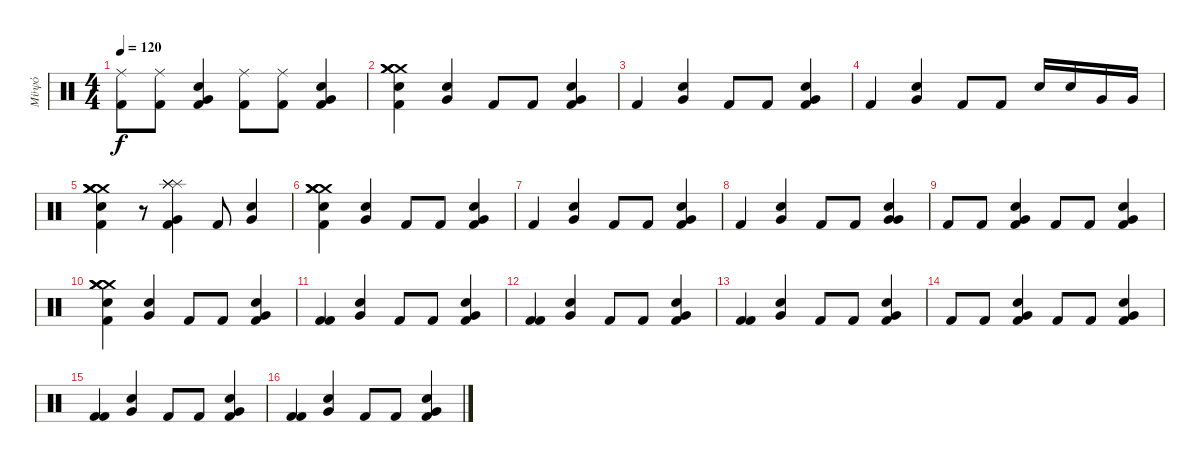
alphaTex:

\track ("Μϋψό" "Μϋψό") {instrument percussion}
\staff {score}
\articulation defaults
\ts (4 4)
\tempo 120
\clef neutral
\ks c
("Kick (hit) 2" "Ride (middle)").8{dy f} ("Kick (hit) 2" "Ride (middle)").8 ("Electric Snare (hit)" "Kick (hit) 2" "Very Low Tom (hit)").4 ("Kick (hit) 2" "Ride (middle)").8 ("Kick (hit) 2" "Ride (middle)").8 ("Electric Snare (hit)" "Kick (hit) 2" "Very Low Tom (hit)").4 |
("Kick (hit) 2" "Electric Snare (hit)" "Crash medium (hit)" "Crash medium (hit)" "Crash medium (hit)" "Crash medium (hit)").4 ("Electric Snare (hit)" "Very Low Tom (hit)").4 "Kick (hit) 2".8 "Kick (hit) 2".8 ("Electric Snare (hit)" "Kick (hit) 2" "Very Low Tom (hit)").4 |
"Kick (hit) 2".4 ("Electric Snare (hit)" "Very Low Tom (hit)").4 "Kick (hit) 2".8 "Kick (hit) 2".8 ("Electric Snare (hit)" "Kick (hit) 2" "Very Low Tom (hit)").4 |
"Kick (hit) 2".4 ("Electric Snare (hit)" "Very Low Tom (hit)").4 "Kick (hit) 2".8 "Kick (hit) 2".8 "Electric Snare (hit)".16 "Electric Snare (hit)".16 "Very Low Tom (hit)".16 "Very Low Tom (hit)".16 |
("Kick (hit) 2" "Electric Snare (hit)" "Crash medium (hit)" "Crash medium (hit)" "Crash medium (hit)" "Crash medium (hit)").4 r.8 ("Kick (hit) 2" "Very Low Tom (hit)" "Splash (hit)" "Splash (hit)" "Splash (hit)" "Splash (hit)").4 "Kick (hit) 2".8 ("Electric Snare (hit)" "Very Low Tom (hit)").4 |
("Kick (hit) 2" "Electric Snare (hit)" "Crash medium (hit)" "Crash medium (hit)" "Crash medium (hit)" "Crash medium (hit)").4 ("Electric Snare (hit)" "Very Low Tom (hit)").4 "Kick (hit) 2".8 "Kick (hit) 2".8 ("Electric Snare (hit)" "Kick (hit) 2" "Very Low Tom (hit)").4 |
"Kick (hit) 2".4 ("Electric Snare (hit)" "Very Low Tom (hit)").4 "Kick (hit) 2".8 "Kick (hit) 2".8 ("Electric Snare (hit)" "Kick (hit) 2" "Very Low Tom (hit)").4 |
"Kick (hit) 2".4 ("Electric Snare (hit)" "Very Low Tom (hit)").4 "Kick (hit) 2".8 "Kick (hit) 2".8 ("Electric Snare (hit)" "Very Low Tom (hit)" "Very Low Tom (hit)").4 |
"Kick (hit) 2".8 "Kick (hit) 2".8 ("Electric Snare (hit)" "Kick (hit) 2" "Very Low Tom (hit)").4 "Kick (hit) 2".8 "Kick (hit) 2".8 ("Electric Snare (hit)" "Kick (hit) 2" "Very Low Tom (hit)").4 |
("Kick (hit) 2" "Electric Snare (hit)" "Crash medium (hit)" "Crash medium (hit)" "Crash medium (hit)" "Crash medium (hit)").4 ("Electric Snare (hit)" "Very Low Tom (hit)").4 "Kick (hit) 2".8 "Kick (hit) 2".8 ("Electric Snare (hit)" "Kick (hit) 2" "Very Low Tom (hit)").4 |
("Kick (hit) 2" "Kick (hit) 2").4 ("Electric Snare (hit)" "Very Low Tom (hit)").4 "Kick (hit) 2".8 "Kick (hit) 2".8 ("Electric Snare (hit)" "Kick (hit) 2" "Very Low Tom (hit)").4 |
("Kick (hit) 2" "Kick (hit) 2").4 ("Electric Snare (hit)" "Very Low Tom (hit)").4 "Kick (hit) 2".8 "Kick (hit) 2".8 ("Electric Snare (hit)" "Kick (hit) 2" "Very Low Tom (hit)").4 |
("Kick (hit) 2" "Kick (hit) 2").4 ("Electric Snare (hit)" "Very Low Tom (hit)").4 "Kick (hit) 2".8 "Kick (hit) 2".8 ("Electric Snare (hit)" "Kick (hit) 2" "Very Low Tom (hit)").4 |
"Kick (hit) 2".8 "Kick (hit) 2".8 ("Electric Snare (hit)" "Kick (hit) 2" "Very Low Tom (hit)").4 "Kick (hit) 2".8 "Kick (hit) 2".8 ("Electric Snare (hit)" "Kick (hit) 2" "Very Low Tom (hit)").4 |
("Kick (hit) 2" "Kick (hit) 2").4 ("Electric Snare (hit)" "Very Low Tom (hit)").4 "Kick (hit) 2".8 "Kick (hit) 2".8 ("Electric Snare (hit)" "Kick (hit) 2" "Very Low Tom (hit)").4 |
("Kick (hit) 2" "Kick (hit) 2").4 ("Electric Snare (hit)" "Very Low Tom (hit)").4 "Kick (hit) 2".8 "Kick (hit) 2".8 ("Electric Snare (hit)" "Kick (hit) 2" "Very Low Tom (hit)").4
